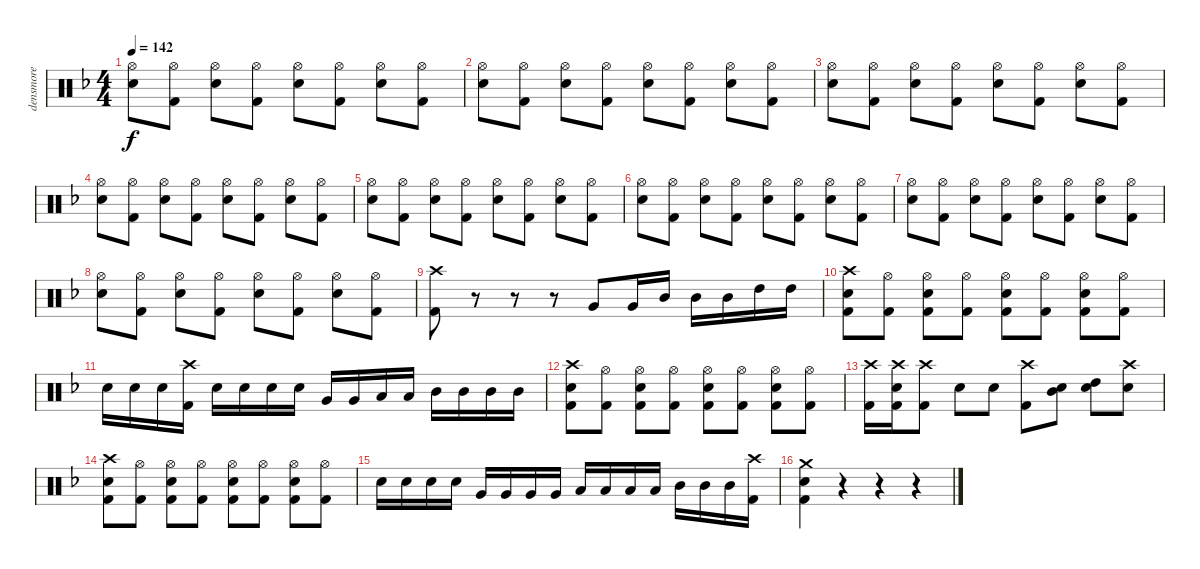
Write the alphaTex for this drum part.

\track ("densmore" "densmore") {instrument percussion}
\staff {score}
\articulation defaults
\ts (4 4)
\tempo 142
\clef neutral
\ks f
("Hi-Hat (open)" "Electric Snare (hit)").8{dy f} ("Hi-Hat (open)" "Kick (hit) 2").8 ("Hi-Hat (open)" "Electric Snare (hit)").8 ("Hi-Hat (open)" "Kick (hit) 2").8 ("Hi-Hat (open)" "Electric Snare (hit)").8 ("Hi-Hat (open)" "Kick (hit) 2").8 ("Hi-Hat (open)" "Electric Snare (hit)").8 ("Hi-Hat (open)" "Kick (hit) 2").8 |
("Hi-Hat (open)" "Electric Snare (hit)").8 ("Hi-Hat (open)" "Kick (hit) 2").8 ("Hi-Hat (open)" "Electric Snare (hit)").8 ("Hi-Hat (open)" "Kick (hit) 2").8 ("Hi-Hat (open)" "Electric Snare (hit)").8 ("Hi-Hat (open)" "Kick (hit) 2").8 ("Hi-Hat (open)" "Electric Snare (hit)").8 ("Hi-Hat (open)" "Kick (hit) 2").8 |
("Hi-Hat (open)" "Electric Snare (hit)").8 ("Hi-Hat (open)" "Kick (hit) 2").8 ("Hi-Hat (open)" "Electric Snare (hit)").8 ("Hi-Hat (open)" "Kick (hit) 2").8 ("Hi-Hat (open)" "Electric Snare (hit)").8 ("Hi-Hat (open)" "Kick (hit) 2").8 ("Hi-Hat (open)" "Electric Snare (hit)").8 ("Hi-Hat (open)" "Kick (hit) 2").8 |
("Hi-Hat (open)" "Electric Snare (hit)").8 ("Hi-Hat (open)" "Kick (hit) 2").8 ("Hi-Hat (open)" "Electric Snare (hit)").8 ("Hi-Hat (open)" "Kick (hit) 2").8 ("Hi-Hat (open)" "Electric Snare (hit)").8 ("Hi-Hat (open)" "Kick (hit) 2").8 ("Hi-Hat (open)" "Electric Snare (hit)").8 ("Hi-Hat (open)" "Kick (hit) 2").8 |
("Hi-Hat (open)" "Electric Snare (hit)").8 ("Hi-Hat (open)" "Kick (hit) 2").8 ("Hi-Hat (open)" "Electric Snare (hit)").8 ("Hi-Hat (open)" "Kick (hit) 2").8 ("Hi-Hat (open)" "Electric Snare (hit)").8 ("Hi-Hat (open)" "Kick (hit) 2").8 ("Hi-Hat (open)" "Electric Snare (hit)").8 ("Hi-Hat (open)" "Kick (hit) 2").8 |
("Hi-Hat (open)" "Electric Snare (hit)").8 ("Hi-Hat (open)" "Kick (hit) 2").8 ("Hi-Hat (open)" "Electric Snare (hit)").8 ("Hi-Hat (open)" "Kick (hit) 2").8 ("Hi-Hat (open)" "Electric Snare (hit)").8 ("Hi-Hat (open)" "Kick (hit) 2").8 ("Hi-Hat (open)" "Electric Snare (hit)").8 ("Hi-Hat (open)" "Kick (hit) 2").8 |
("Hi-Hat (open)" "Electric Snare (hit)").8 ("Hi-Hat (open)" "Kick (hit) 2").8 ("Hi-Hat (open)" "Electric Snare (hit)").8 ("Hi-Hat (open)" "Kick (hit) 2").8 ("Hi-Hat (open)" "Electric Snare (hit)").8 ("Hi-Hat (open)" "Kick (hit) 2").8 ("Hi-Hat (open)" "Electric Snare (hit)").8 ("Hi-Hat (open)" "Kick (hit) 2").8 |
("Hi-Hat (open)" "Electric Snare (hit)").8 ("Hi-Hat (open)" "Kick (hit) 2").8 ("Hi-Hat (open)" "Electric Snare (hit)").8 ("Hi-Hat (open)" "Kick (hit) 2").8 ("Hi-Hat (open)" "Electric Snare (hit)").8 ("Hi-Hat (open)" "Kick (hit) 2").8 ("Hi-Hat (open)" "Electric Snare (hit)").8 ("Hi-Hat (open)" "Kick (hit) 2").8 |
("Crash high (hit)" "Kick (hit) 2").8 r.8 r.8 r.8 "Very Low Tom (hit)".8 "Very Low Tom (hit)".16 "Mid Tom (hit)".16 "Mid Tom (hit)".16 "Mid Tom (hit)".16 "High Tom (hit)".16 "High Tom (hit)".16 |
("Crash high (hit)" "Kick (hit) 2" "Electric Snare (hit)").8 ("Hi-Hat (open)" "Kick (hit) 2").8 ("Hi-Hat (open)" "Electric Snare (hit)" "Kick (hit) 2").8 ("Hi-Hat (open)" "Kick (hit) 2").8 ("Hi-Hat (open)" "Electric Snare (hit)" "Kick (hit) 2").8 ("Hi-Hat (open)" "Kick (hit) 2").8 ("Hi-Hat (open)" "Electric Snare (hit)" "Kick (hit) 2").8 ("Hi-Hat (open)" "Kick (hit) 2").8 |
"Electric Snare (hit)".16 "Electric Snare (hit)".16 "Electric Snare (hit)".16 ("Crash high (hit)" "Kick (hit) 2").16 "Electric Snare (hit)".16 "Electric Snare (hit)".16 "Electric Snare (hit)".16 "Electric Snare (hit)".16 "Very Low Tom (hit)".16 "Very Low Tom (hit)".16 "Low Tom (hit)".16 "Low Tom (hit)".16 "Mid Tom (hit)".16 "Mid Tom (hit)".16 "Mid Tom (hit)".16 "Mid Tom (hit)".16 |
("Crash high (hit)" "Kick (hit) 2" "Electric Snare (hit)").8 ("Hi-Hat (open)" "Kick (hit) 2").8 ("Hi-Hat (open)" "Electric Snare (hit)" "Kick (hit) 2").8 ("Hi-Hat (open)" "Kick (hit) 2").8 ("Hi-Hat (open)" "Electric Snare (hit)" "Kick (hit) 2").8 ("Hi-Hat (open)" "Kick (hit) 2").8 ("Hi-Hat (open)" "Electric Snare (hit)" "Kick (hit) 2").8 ("Hi-Hat (open)" "Kick (hit) 2").8 |
("Crash high (hit)" "Kick (hit) 2").16 ("Crash high (hit)" "Electric Snare (hit)" "Kick (hit) 2").16 ("Crash high (hit)" "Kick (hit) 2").8 "Electric Snare (hit)".8 "Electric Snare (hit)".8 ("Crash high (hit)" "Kick (hit) 2").8 ("Mid Tom (hit)" "Electric Snare (hit)").8 ("High Tom (hit)" "Electric Snare (hit)").8 ("Crash high (hit)" "Electric Snare (hit)").8 |
("Crash high (hit)" "Kick (hit) 2" "Electric Snare (hit)").8 ("Hi-Hat (open)" "Kick (hit) 2").8 ("Hi-Hat (open)" "Electric Snare (hit)" "Kick (hit) 2").8 ("Hi-Hat (open)" "Kick (hit) 2").8 ("Hi-Hat (open)" "Electric Snare (hit)" "Kick (hit) 2").8 ("Hi-Hat (open)" "Kick (hit) 2").8 ("Hi-Hat (open)" "Electric Snare (hit)" "Kick (hit) 2").8 ("Hi-Hat (open)" "Kick (hit) 2").8 |
"Electric Snare (hit)".16 "Electric Snare (hit)".16 "Electric Snare (hit)".16 "Electric Snare (hit)".16 "Very Low Tom (hit)".16 "Very Low Tom (hit)".16 "Very Low Tom (hit)".16 "Very Low Tom (hit)".16 "Low Tom (hit)".16 "Low Tom (hit)".16 "Low Tom (hit)".16 "Low Tom (hit)".16 "Mid Tom (hit)".16 "Mid Tom (hit)".16 "Mid Tom (hit)".16 ("Crash high (hit)" "Kick (hit) 2").16 |
("Crash medium (hit)" "Electric Snare (hit)" "Kick (hit) 2").4 r.4 r.4 r.4
